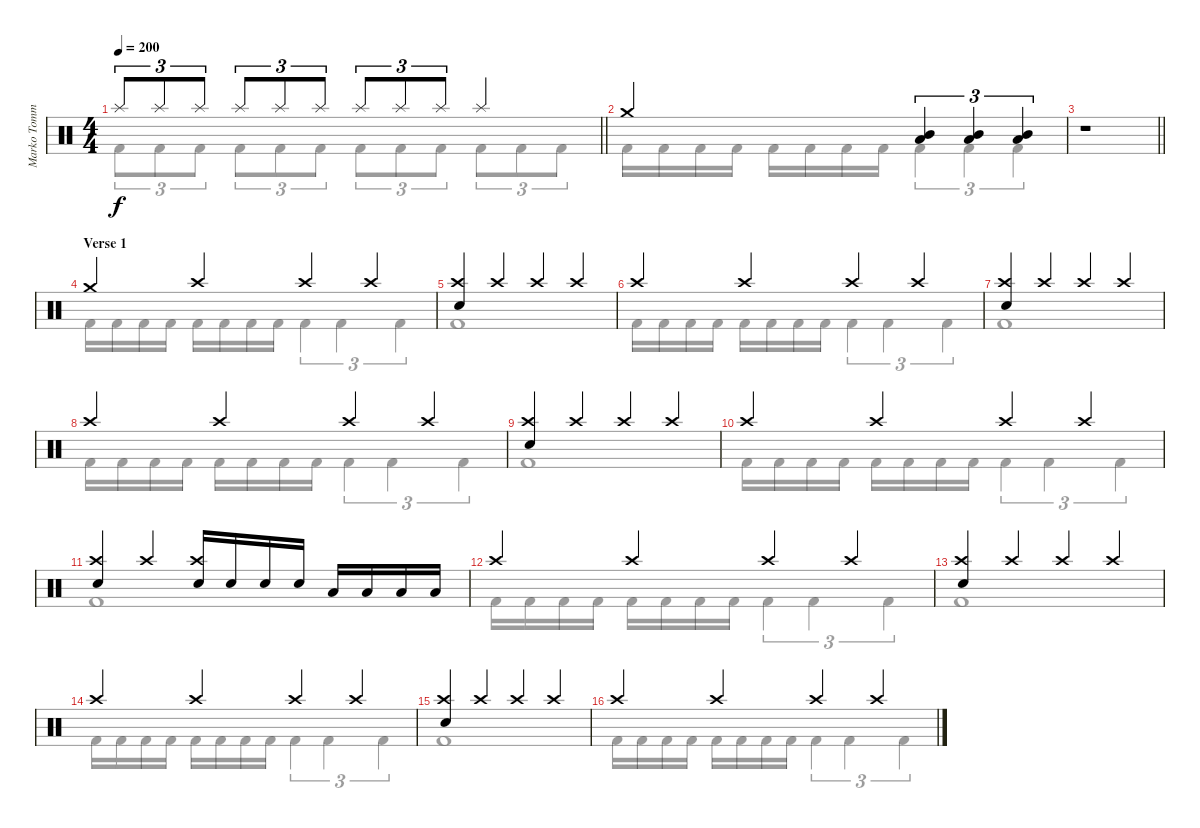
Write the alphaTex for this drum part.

\track ("Marko Tommila (drums)" "Marko Tomm") {instrument percussion}
\staff {score}
\articulation defaults
\voice
\ts (4 4)
\tempo 200
\clef neutral
\barLineRight lightlight
\ks c "Splash (hit)".8{tu (3 2) dy f} "Splash (hit)".8{tu (3 2)} "Splash (hit)".8{tu (3 2)} "Splash (hit)".8{tu (3 2)} "Splash (hit)".8{tu (3 2)} "Splash (hit)".8{tu (3 2)} "Splash (hit)".8{tu (3 2)} "Splash (hit)".8{tu (3 2)} "Splash (hit)".8{tu (3 2)} "Splash (hit)".4
|
"Crash medium (hit)".2 ("Mid Tom (hit)" "Low Tom (hit)").4{tu (3 2)} ("Mid Tom (hit)" "Low Tom (hit)").4{tu (3 2)} ("Mid Tom (hit)" "Low Tom (hit)").4{tu (3 2)} |
\barLineRight lightlight
r.1 |
\section ("" "Verse 1")
"Crash medium (hit)".4 "Crash high (hit)".4 "Crash high (hit)".4 "Crash high (hit)".4 |
("Crash high (hit)" "Electric Snare (hit)").4 "Crash high (hit)".4 "Crash high (hit)".4 "Crash high (hit)".4 |
"Crash high (hit)".4 "Crash high (hit)".4 "Crash high (hit)".4 "Crash high (hit)".4 |
("Crash high (hit)" "Electric Snare (hit)").4 "Crash high (hit)".4 "Crash high (hit)".4 "Crash high (hit)".4 |
"Crash high (hit)".4 "Crash high (hit)".4 "Crash high (hit)".4 "Crash high (hit)".4 |
("Crash high (hit)" "Electric Snare (hit)").4 "Crash high (hit)".4 "Crash high (hit)".4 "Crash high (hit)".4 |
"Crash high (hit)".4 "Crash high (hit)".4 "Crash high (hit)".4 "Crash high (hit)".4 |
("Crash high (hit)" "Electric Snare (hit)").4 "Crash high (hit)".4 ("Crash high (hit)" "Electric Snare (hit)").16 "Electric Snare (hit)".16 "Electric Snare (hit)".16 "Electric Snare (hit)".16 "Low Tom (hit)".16 "Low Tom (hit)".16 "Low Tom (hit)".16 "Low Tom (hit)".16 |
"Crash high (hit)".4 "Crash high (hit)".4 "Crash high (hit)".4 "Crash high (hit)".4 |
("Crash high (hit)" "Electric Snare (hit)").4 "Crash high (hit)".4 "Crash high (hit)".4 "Crash high (hit)".4 |
"Crash high (hit)".4 "Crash high (hit)".4 "Crash high (hit)".4 "Crash high (hit)".4 |
("Crash high (hit)" "Electric Snare (hit)").4 "Crash high (hit)".4 "Crash high (hit)".4 "Crash high (hit)".4 |
"Crash high (hit)".4 "Crash high (hit)".4 "Crash high (hit)".4 "Crash high (hit)".4
\voice
\clef neutral
\ottava regular
\simile none
\barLineRight lightlight
\ks c "Kick (hit) 2".8{tu (3 2) dy f} "Kick (hit) 2".8{tu (3 2)} "Kick (hit) 2".8{tu (3 2)} "Kick (hit) 2".8{tu (3 2)} "Kick (hit) 2".8{tu (3 2)} "Kick (hit) 2".8{tu (3 2)} "Kick (hit) 2".8{tu (3 2)} "Kick (hit) 2".8{tu (3 2)} "Kick (hit) 2".8{tu (3 2)} "Kick (hit) 2".8{tu (3 2)} "Kick (hit) 2".8{tu (3 2)} "Kick (hit) 2".8{tu (3 2)}
|
"Kick (hit) 2".16 "Kick (hit) 2".16 "Kick (hit) 2".16 "Kick (hit) 2".16 "Kick (hit) 2".16 "Kick (hit) 2".16 "Kick (hit) 2".16 "Kick (hit) 2".16 "Kick (hit) 2".4{tu (3 2)} "Kick (hit) 2".4{tu (3 2)} "Kick (hit) 2".4{tu (3 2)} |
\barLineRight lightlight
|
"Kick (hit) 2".16 "Kick (hit) 2".16 "Kick (hit) 2".16 "Kick (hit) 2".16 "Kick (hit) 2".16 "Kick (hit) 2".16 "Kick (hit) 2".16 "Kick (hit) 2".16 "Kick (hit) 2".4{tu (3 2)} "Kick (hit) 2".4{tu (3 2)} "Kick (hit) 2".4{tu (3 2)} |
"Kick (hit) 2".1 |
"Kick (hit) 2".16 "Kick (hit) 2".16 "Kick (hit) 2".16 "Kick (hit) 2".16 "Kick (hit) 2".16 "Kick (hit) 2".16 "Kick (hit) 2".16 "Kick (hit) 2".16 "Kick (hit) 2".4{tu (3 2)} "Kick (hit) 2".4{tu (3 2)} "Kick (hit) 2".4{tu (3 2)} |
"Kick (hit) 2".1 |
"Kick (hit) 2".16 "Kick (hit) 2".16 "Kick (hit) 2".16 "Kick (hit) 2".16 "Kick (hit) 2".16 "Kick (hit) 2".16 "Kick (hit) 2".16 "Kick (hit) 2".16 "Kick (hit) 2".4{tu (3 2)} "Kick (hit) 2".4{tu (3 2)} "Kick (hit) 2".4{tu (3 2)} |
"Kick (hit) 2".1 |
"Kick (hit) 2".16 "Kick (hit) 2".16 "Kick (hit) 2".16 "Kick (hit) 2".16 "Kick (hit) 2".16 "Kick (hit) 2".16 "Kick (hit) 2".16 "Kick (hit) 2".16 "Kick (hit) 2".4{tu (3 2)} "Kick (hit) 2".4{tu (3 2)} "Kick (hit) 2".4{tu (3 2)} |
"Kick (hit) 2".1 |
"Kick (hit) 2".16 "Kick (hit) 2".16 "Kick (hit) 2".16 "Kick (hit) 2".16 "Kick (hit) 2".16 "Kick (hit) 2".16 "Kick (hit) 2".16 "Kick (hit) 2".16 "Kick (hit) 2".4{tu (3 2)} "Kick (hit) 2".4{tu (3 2)} "Kick (hit) 2".4{tu (3 2)} |
"Kick (hit) 2".1 |
"Kick (hit) 2".16 "Kick (hit) 2".16 "Kick (hit) 2".16 "Kick (hit) 2".16 "Kick (hit) 2".16 "Kick (hit) 2".16 "Kick (hit) 2".16 "Kick (hit) 2".16 "Kick (hit) 2".4{tu (3 2)} "Kick (hit) 2".4{tu (3 2)} "Kick (hit) 2".4{tu (3 2)} |
"Kick (hit) 2".1 |
"Kick (hit) 2".16 "Kick (hit) 2".16 "Kick (hit) 2".16 "Kick (hit) 2".16 "Kick (hit) 2".16 "Kick (hit) 2".16 "Kick (hit) 2".16 "Kick (hit) 2".16 "Kick (hit) 2".4{tu (3 2)} "Kick (hit) 2".4{tu (3 2)} "Kick (hit) 2".4{tu (3 2)}
